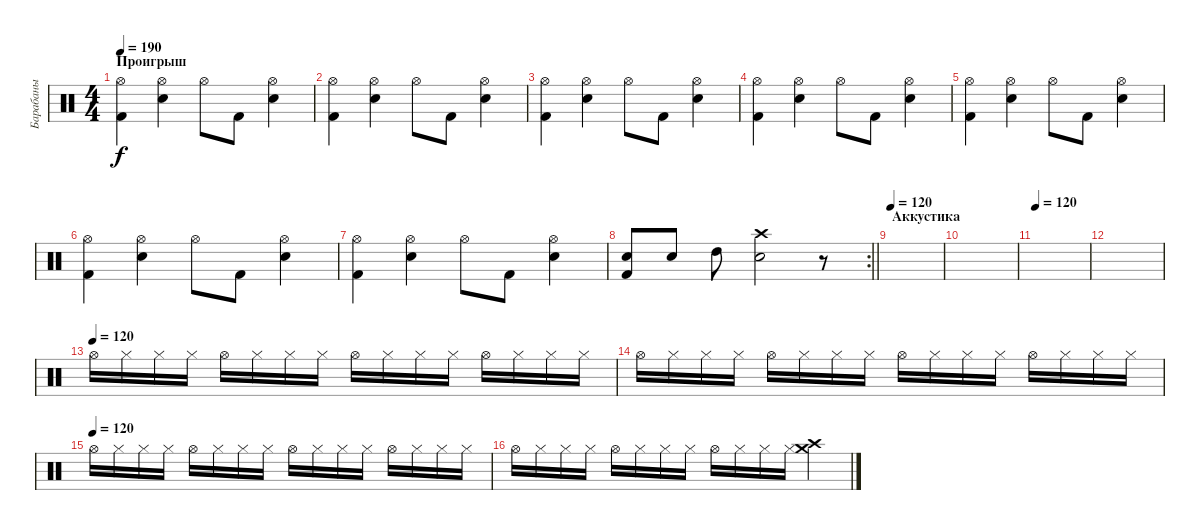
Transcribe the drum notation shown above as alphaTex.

\track ("Барабаны" "Барабаны") {instrument percussion}
\staff {score}
\articulation defaults
\ts (4 4)
\section ("" "Проигрыш")
\tempo 190
\clef neutral
\ks c
("Kick (hit) 2" "Hi-Hat (open)").4{dy f} ("Hi-Hat (open)" "Electric Snare (hit)").4 "Hi-Hat (open)".8 "Kick (hit) 2".8 ("Hi-Hat (open)" "Electric Snare (hit)").4 |
("Kick (hit) 2" "Hi-Hat (open)").4 ("Hi-Hat (open)" "Electric Snare (hit)").4 "Hi-Hat (open)".8 "Kick (hit) 2".8 ("Hi-Hat (open)" "Electric Snare (hit)").4 |
("Kick (hit) 2" "Hi-Hat (open)").4 ("Hi-Hat (open)" "Electric Snare (hit)").4 "Hi-Hat (open)".8 "Kick (hit) 2".8 ("Hi-Hat (open)" "Electric Snare (hit)").4 |
("Kick (hit) 2" "Hi-Hat (open)").4 ("Hi-Hat (open)" "Electric Snare (hit)").4 "Hi-Hat (open)".8 "Kick (hit) 2".8 ("Hi-Hat (open)" "Electric Snare (hit)").4 |
("Kick (hit) 2" "Hi-Hat (open)").4 ("Hi-Hat (open)" "Electric Snare (hit)").4 "Hi-Hat (open)".8 "Kick (hit) 2".8 ("Hi-Hat (open)" "Electric Snare (hit)").4 |
("Kick (hit) 2" "Hi-Hat (open)").4 ("Hi-Hat (open)" "Electric Snare (hit)").4 "Hi-Hat (open)".8 "Kick (hit) 2".8 ("Hi-Hat (open)" "Electric Snare (hit)").4 |
("Kick (hit) 2" "Hi-Hat (open)").4 ("Hi-Hat (open)" "Electric Snare (hit)").4 "Hi-Hat (open)".8 "Kick (hit) 2".8 ("Hi-Hat (open)" "Electric Snare (hit)").4 |
\rc 2
\barLineRight lightlight
("Kick (hit) 2" "Electric Snare (hit)").8 "Electric Snare (hit)".8 "High Tom (hit)".8 ("Electric Snare (hit)" "Crash high (hit)").2 r.8 |
\section ("" "Аккустика")
\tempo 120
|
|
\tempo 120
|
|
\tempo (120)
"Hi-Hat (open)".16 "Hi-Hat (closed)".16 "Hi-Hat (closed)".16 "Hi-Hat (closed)".16 "Hi-Hat (open)".16 "Hi-Hat (closed)".16 "Hi-Hat (closed)".16 "Hi-Hat (closed)".16 "Hi-Hat (open)".16 "Hi-Hat (closed)".16 "Hi-Hat (closed)".16 "Hi-Hat (closed)".16 "Hi-Hat (open)".16 "Hi-Hat (closed)".16 "Hi-Hat (closed)".16 "Hi-Hat (closed)".16 |
"Hi-Hat (open)".16 "Hi-Hat (closed)".16 "Hi-Hat (closed)".16 "Hi-Hat (closed)".16 "Hi-Hat (open)".16 "Hi-Hat (closed)".16 "Hi-Hat (closed)".16 "Hi-Hat (closed)".16 "Hi-Hat (open)".16 "Hi-Hat (closed)".16 "Hi-Hat (closed)".16 "Hi-Hat (closed)".16 "Hi-Hat (open)".16 "Hi-Hat (closed)".16 "Hi-Hat (closed)".16 "Hi-Hat (closed)".16 |
\tempo (120)
"Hi-Hat (open)".16 "Hi-Hat (closed)".16 "Hi-Hat (closed)".16 "Hi-Hat (closed)".16 "Hi-Hat (open)".16 "Hi-Hat (closed)".16 "Hi-Hat (closed)".16 "Hi-Hat (closed)".16 "Hi-Hat (open)".16 "Hi-Hat (closed)".16 "Hi-Hat (closed)".16 "Hi-Hat (closed)".16 "Hi-Hat (open)".16 "Hi-Hat (closed)".16 "Hi-Hat (closed)".16 "Hi-Hat (closed)".16 |
"Hi-Hat (open)".16 "Hi-Hat (closed)".16 "Hi-Hat (closed)".16 "Hi-Hat (closed)".16 "Hi-Hat (open)".16 "Hi-Hat (closed)".16 "Hi-Hat (closed)".16 "Hi-Hat (closed)".16 "Hi-Hat (open)".16 "Hi-Hat (closed)".16 "Hi-Hat (closed)".16 "Hi-Hat (closed)".16 ("Crash medium (hit)" "Crash high (hit)").4{volume 16}
